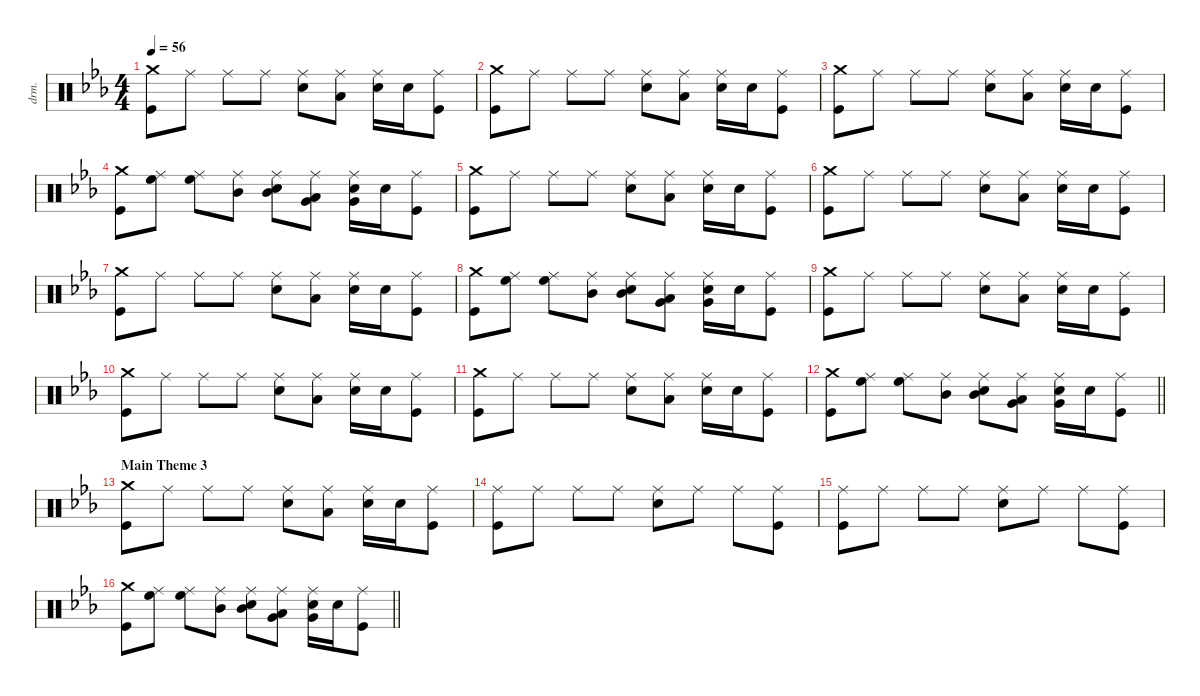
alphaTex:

\defaultSystemsLayout 4
\hideDynamics
\bracketExtendMode groupsimilarinstruments
\otherSystemsTrackNameOrientation horizontal
\track ("Percussion" "drm.") {defaultSystemsLayout 4 instrument percussion}
\staff {score}
\articulation defaults
\ts (4 4)
\tempo 56
\clef neutral
\ks cminor
("Crash medium (hit)"{acc forcenatural} "Kick (hit)"{acc forcenatural}).8{dy f} "Ride (middle)"{acc forcenatural}.8 "Ride (middle)"{acc forcenatural}.8 "Ride (middle)"{acc forcenatural}.8 ("Snare (hit) 2"{acc forcenatural} "Ride (middle)"{acc forcenatural}).8 ("Low Floor Tom (hit)"{acc forcenatural} "Ride (middle)"{acc forcenatural}).8 ("Snare (hit) 2"{acc forcenatural} "Ride (middle)"{acc forcenatural}).16 "Snare (hit) 2"{acc forcenatural}.16 ("Kick (hit)"{acc forcenatural} "Ride (middle)"{acc forcenatural}).8 |
("Crash medium (hit)"{acc forcenatural} "Kick (hit)"{acc forcenatural}).8 "Ride (middle)"{acc forcenatural}.8 "Ride (middle)"{acc forcenatural}.8 "Ride (middle)"{acc forcenatural}.8 ("Snare (hit) 2"{acc forcenatural} "Ride (middle)"{acc forcenatural}).8 ("Low Floor Tom (hit)"{acc forcenatural} "Ride (middle)"{acc forcenatural}).8 ("Snare (hit) 2"{acc forcenatural} "Ride (middle)"{acc forcenatural}).16 "Snare (hit) 2"{acc forcenatural}.16 ("Kick (hit)"{acc forcenatural} "Ride (middle)"{acc forcenatural}).8 |
("Crash medium (hit)"{acc forcenatural} "Kick (hit)"{acc forcenatural}).8 "Ride (middle)"{acc forcenatural}.8 "Ride (middle)"{acc forcenatural}.8 "Ride (middle)"{acc forcenatural}.8 ("Snare (hit) 2"{acc forcenatural} "Ride (middle)"{acc forcenatural}).8 ("Low Floor Tom (hit)"{acc forcenatural} "Ride (middle)"{acc forcenatural}).8 ("Snare (hit) 2"{acc forcenatural} "Ride (middle)"{acc forcenatural}).16 "Snare (hit) 2"{acc forcenatural}.16 ("Kick (hit)"{acc forcenatural} "Ride (middle)"{acc forcenatural}).8 |
("Crash medium (hit)"{acc forcenatural} "Kick (hit)"{acc forcenatural}).8 ("High Floor Tom (hit)"{acc forcenatural} "Ride (middle)"{acc forcenatural}).8 ("High Floor Tom (hit)"{acc forcenatural} "Ride (middle)"{acc forcenatural}).8 ("Mid Tom (hit)"{acc forcenatural} "Ride (middle)"{acc forcenatural}).8 ("Mid Tom (hit)"{acc forcenatural} "Snare (hit) 2"{acc forcenatural} "Ride (middle)"{acc forcenatural}).8 ("Very Low Tom (hit)"{acc forcenatural} "Low Floor Tom (hit)"{acc forcenatural} "Ride (middle)"{acc forcenatural}).8 ("Very Low Tom (hit)"{acc forcenatural} "Snare (hit) 2"{acc forcenatural} "Ride (middle)"{acc forcenatural}).16 "Snare (hit) 2"{acc forcenatural}.16 ("Kick (hit)"{acc forcenatural} "Ride (middle)"{acc forcenatural}).8 |
("Crash medium (hit)"{acc forcenatural} "Kick (hit)"{acc forcenatural}).8 "Ride (middle)"{acc forcenatural}.8 "Ride (middle)"{acc forcenatural}.8 "Ride (middle)"{acc forcenatural}.8 ("Snare (hit) 2"{acc forcenatural} "Ride (middle)"{acc forcenatural}).8 ("Low Floor Tom (hit)"{acc forcenatural} "Ride (middle)"{acc forcenatural}).8 ("Snare (hit) 2"{acc forcenatural} "Ride (middle)"{acc forcenatural}).16 "Snare (hit) 2"{acc forcenatural}.16 ("Kick (hit)"{acc forcenatural} "Ride (middle)"{acc forcenatural}).8 |
("Crash medium (hit)"{acc forcenatural} "Kick (hit)"{acc forcenatural}).8 "Ride (middle)"{acc forcenatural}.8 "Ride (middle)"{acc forcenatural}.8 "Ride (middle)"{acc forcenatural}.8 ("Snare (hit) 2"{acc forcenatural} "Ride (middle)"{acc forcenatural}).8 ("Low Floor Tom (hit)"{acc forcenatural} "Ride (middle)"{acc forcenatural}).8 ("Snare (hit) 2"{acc forcenatural} "Ride (middle)"{acc forcenatural}).16 "Snare (hit) 2"{acc forcenatural}.16 ("Kick (hit)"{acc forcenatural} "Ride (middle)"{acc forcenatural}).8 |
("Crash medium (hit)"{acc forcenatural} "Kick (hit)"{acc forcenatural}).8 "Ride (middle)"{acc forcenatural}.8 "Ride (middle)"{acc forcenatural}.8 "Ride (middle)"{acc forcenatural}.8 ("Snare (hit) 2"{acc forcenatural} "Ride (middle)"{acc forcenatural}).8 ("Low Floor Tom (hit)"{acc forcenatural} "Ride (middle)"{acc forcenatural}).8 ("Snare (hit) 2"{acc forcenatural} "Ride (middle)"{acc forcenatural}).16 "Snare (hit) 2"{acc forcenatural}.16 ("Kick (hit)"{acc forcenatural} "Ride (middle)"{acc forcenatural}).8 |
("Crash medium (hit)"{acc forcenatural} "Kick (hit)"{acc forcenatural}).8 ("High Floor Tom (hit)"{acc forcenatural} "Ride (middle)"{acc forcenatural}).8 ("High Floor Tom (hit)"{acc forcenatural} "Ride (middle)"{acc forcenatural}).8 ("Mid Tom (hit)"{acc forcenatural} "Ride (middle)"{acc forcenatural}).8 ("Mid Tom (hit)"{acc forcenatural} "Snare (hit) 2"{acc forcenatural} "Ride (middle)"{acc forcenatural}).8 ("Very Low Tom (hit)"{acc forcenatural} "Low Floor Tom (hit)"{acc forcenatural} "Ride (middle)"{acc forcenatural}).8 ("Very Low Tom (hit)"{acc forcenatural} "Snare (hit) 2"{acc forcenatural} "Ride (middle)"{acc forcenatural}).16 "Snare (hit) 2"{acc forcenatural}.16 ("Kick (hit)"{acc forcenatural} "Ride (middle)"{acc forcenatural}).8 |
("Crash medium (hit)"{acc forcenatural} "Kick (hit)"{acc forcenatural}).8 "Ride (middle)"{acc forcenatural}.8 "Ride (middle)"{acc forcenatural}.8 "Ride (middle)"{acc forcenatural}.8 ("Snare (hit) 2"{acc forcenatural} "Ride (middle)"{acc forcenatural}).8 ("Low Floor Tom (hit)"{acc forcenatural} "Ride (middle)"{acc forcenatural}).8 ("Snare (hit) 2"{acc forcenatural} "Ride (middle)"{acc forcenatural}).16 "Snare (hit) 2"{acc forcenatural}.16 ("Kick (hit)"{acc forcenatural} "Ride (middle)"{acc forcenatural}).8 |
("Crash medium (hit)"{acc forcenatural} "Kick (hit)"{acc forcenatural}).8 "Ride (middle)"{acc forcenatural}.8 "Ride (middle)"{acc forcenatural}.8 "Ride (middle)"{acc forcenatural}.8 ("Snare (hit) 2"{acc forcenatural} "Ride (middle)"{acc forcenatural}).8 ("Low Floor Tom (hit)"{acc forcenatural} "Ride (middle)"{acc forcenatural}).8 ("Snare (hit) 2"{acc forcenatural} "Ride (middle)"{acc forcenatural}).16 "Snare (hit) 2"{acc forcenatural}.16 ("Kick (hit)"{acc forcenatural} "Ride (middle)"{acc forcenatural}).8 |
("Crash medium (hit)"{acc forcenatural} "Kick (hit)"{acc forcenatural}).8 "Ride (middle)"{acc forcenatural}.8 "Ride (middle)"{acc forcenatural}.8 "Ride (middle)"{acc forcenatural}.8 ("Snare (hit) 2"{acc forcenatural} "Ride (middle)"{acc forcenatural}).8 ("Low Floor Tom (hit)"{acc forcenatural} "Ride (middle)"{acc forcenatural}).8 ("Snare (hit) 2"{acc forcenatural} "Ride (middle)"{acc forcenatural}).16 "Snare (hit) 2"{acc forcenatural}.16 ("Kick (hit)"{acc forcenatural} "Ride (middle)"{acc forcenatural}).8 |
\barLineRight lightlight
("Crash medium (hit)"{acc forcenatural} "Kick (hit)"{acc forcenatural}).8 ("High Floor Tom (hit)"{acc forcenatural} "Ride (middle)"{acc forcenatural}).8 ("High Floor Tom (hit)"{acc forcenatural} "Ride (middle)"{acc forcenatural}).8 ("Mid Tom (hit)"{acc forcenatural} "Ride (middle)"{acc forcenatural}).8 ("Mid Tom (hit)"{acc forcenatural} "Snare (hit) 2"{acc forcenatural} "Ride (middle)"{acc forcenatural}).8 ("Very Low Tom (hit)"{acc forcenatural} "Low Floor Tom (hit)"{acc forcenatural} "Ride (middle)"{acc forcenatural}).8 ("Very Low Tom (hit)"{acc forcenatural} "Snare (hit) 2"{acc forcenatural} "Ride (middle)"{acc forcenatural}).16 "Snare (hit) 2"{acc forcenatural}.16 ("Kick (hit)"{acc forcenatural} "Ride (middle)"{acc forcenatural}).8 |
\section ("" "Main Theme 3")
("Crash medium (hit)"{acc forcenatural} "Kick (hit)"{acc forcenatural}).8 "Ride (middle)"{acc forcenatural}.8 "Ride (middle)"{acc forcenatural}.8 "Ride (middle)"{acc forcenatural}.8 ("Snare (hit) 2"{acc forcenatural} "Ride (middle)"{acc forcenatural}).8 ("Low Floor Tom (hit)"{acc forcenatural} "Ride (middle)"{acc forcenatural}).8 ("Snare (hit) 2"{acc forcenatural} "Ride (middle)"{acc forcenatural}).16 "Snare (hit) 2"{acc forcenatural}.16 ("Kick (hit)"{acc forcenatural} "Ride (middle)"{acc forcenatural}).8 |
("Ride (middle)"{acc forcenatural} "Kick (hit)"{acc forcenatural}).8 "Ride (middle)"{acc forcenatural}.8 "Ride (middle)"{acc forcenatural}.8 "Ride (middle)"{acc forcenatural}.8 ("Snare (hit) 2"{acc forcenatural} "Ride (middle)"{acc forcenatural}).8 "Ride (middle)"{acc forcenatural}.8 "Ride (middle)"{acc forcenatural}.8 ("Kick (hit)"{acc forcenatural} "Ride (middle)"{acc forcenatural}).8 |
("Ride (middle)"{acc forcenatural} "Kick (hit)"{acc forcenatural}).8 "Ride (middle)"{acc forcenatural}.8 "Ride (middle)"{acc forcenatural}.8 "Ride (middle)"{acc forcenatural}.8 ("Snare (hit) 2"{acc forcenatural} "Ride (middle)"{acc forcenatural}).8 "Ride (middle)"{acc forcenatural}.8 "Ride (middle)"{acc forcenatural}.8 ("Kick (hit)"{acc forcenatural} "Ride (middle)"{acc forcenatural}).8 |
\barLineRight lightlight
("Crash medium (hit)"{acc forcenatural} "Kick (hit)"{acc forcenatural}).8 ("High Floor Tom (hit)"{acc forcenatural} "Ride (middle)"{acc forcenatural}).8 ("High Floor Tom (hit)"{acc forcenatural} "Ride (middle)"{acc forcenatural}).8 ("Mid Tom (hit)"{acc forcenatural} "Ride (middle)"{acc forcenatural}).8 ("Mid Tom (hit)"{acc forcenatural} "Snare (hit) 2"{acc forcenatural} "Ride (middle)"{acc forcenatural}).8 ("Very Low Tom (hit)"{acc forcenatural} "Low Floor Tom (hit)"{acc forcenatural} "Ride (middle)"{acc forcenatural}).8 ("Very Low Tom (hit)"{acc forcenatural} "Snare (hit) 2"{acc forcenatural} "Ride (middle)"{acc forcenatural}).16 "Snare (hit) 2"{acc forcenatural}.16 ("Kick (hit)"{acc forcenatural} "Ride (middle)"{acc forcenatural}).8
